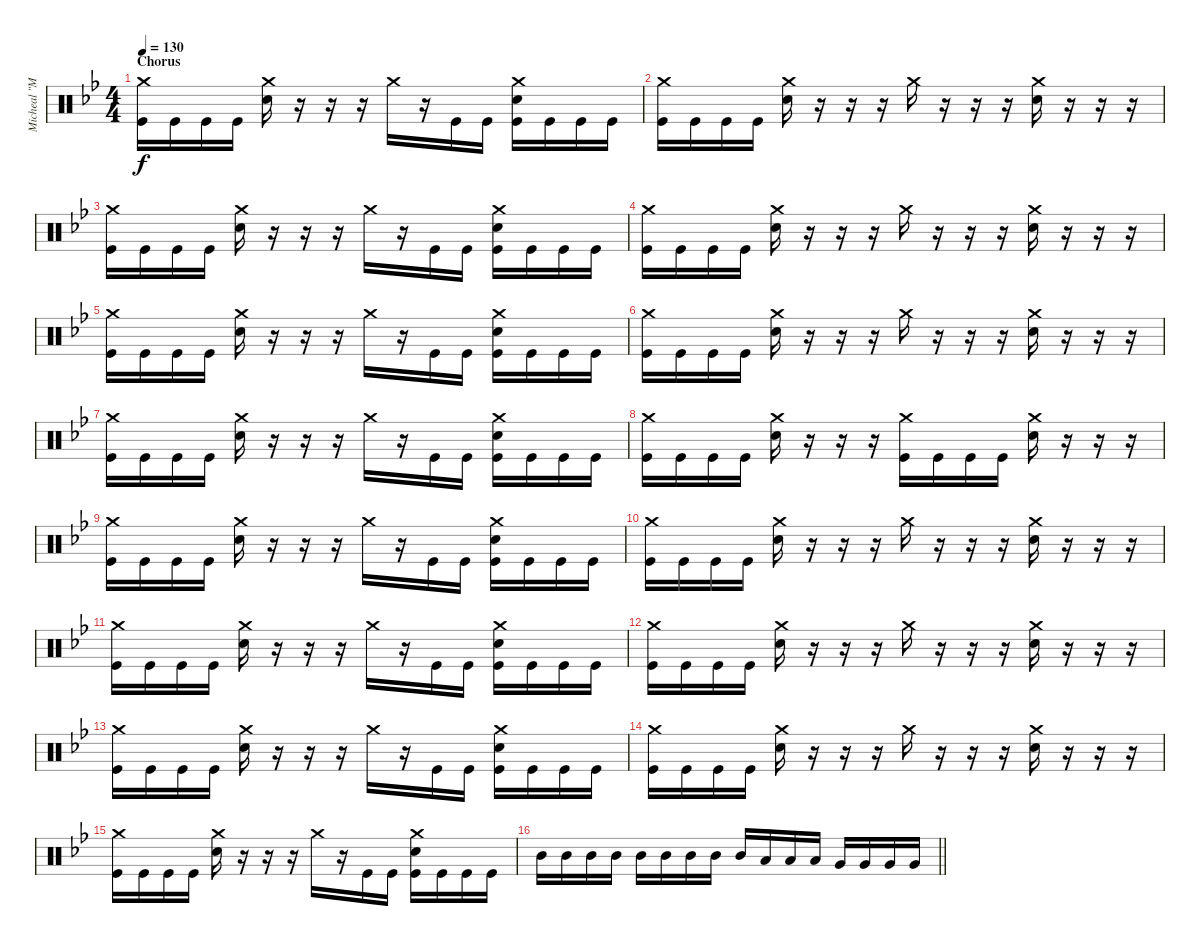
\track ("Micheal \"Moose\" Thomas" "Micheal \"M") {instrument percussion}
\staff {score}
\articulation defaults
\ts (4 4)
\section ("" "Chorus")
\tempo 130
\clef neutral
\ks bb
("Crash medium (hit)" "Kick (hit)").16{dy f} "Kick (hit)".16 "Kick (hit)".16 "Kick (hit)".16 ("Crash medium (hit)" "Snare (hit) 2").16 r.16 r.16 r.16 "Crash medium (hit)".16 r.16 "Kick (hit)".16 "Kick (hit)".16 ("Crash medium (hit)" "Snare (hit) 2" "Kick (hit)").16 "Kick (hit)".16 "Kick (hit)".16 "Kick (hit)".16 |
("Crash medium (hit)" "Kick (hit)").16 "Kick (hit)".16 "Kick (hit)".16 "Kick (hit)".16 ("Crash medium (hit)" "Snare (hit) 2").16 r.16 r.16 r.16 "Crash medium (hit)".16 r.16 r.16 r.16 ("Crash medium (hit)" "Snare (hit) 2").16 r.16 r.16 r.16 |
("Crash medium (hit)" "Kick (hit)").16 "Kick (hit)".16 "Kick (hit)".16 "Kick (hit)".16 ("Crash medium (hit)" "Snare (hit) 2").16 r.16 r.16 r.16 "Crash medium (hit)".16 r.16 "Kick (hit)".16 "Kick (hit)".16 ("Crash medium (hit)" "Snare (hit) 2" "Kick (hit)").16 "Kick (hit)".16 "Kick (hit)".16 "Kick (hit)".16 |
("Crash medium (hit)" "Kick (hit)").16 "Kick (hit)".16 "Kick (hit)".16 "Kick (hit)".16 ("Crash medium (hit)" "Snare (hit) 2").16 r.16 r.16 r.16 "Crash medium (hit)".16 r.16 r.16 r.16 ("Crash medium (hit)" "Snare (hit) 2").16 r.16 r.16 r.16 |
("Crash medium (hit)" "Kick (hit)").16 "Kick (hit)".16 "Kick (hit)".16 "Kick (hit)".16 ("Crash medium (hit)" "Snare (hit) 2").16 r.16 r.16 r.16 "Crash medium (hit)".16 r.16 "Kick (hit)".16 "Kick (hit)".16 ("Crash medium (hit)" "Snare (hit) 2" "Kick (hit)").16 "Kick (hit)".16 "Kick (hit)".16 "Kick (hit)".16 |
("Crash medium (hit)" "Kick (hit)").16 "Kick (hit)".16 "Kick (hit)".16 "Kick (hit)".16 ("Crash medium (hit)" "Snare (hit) 2").16 r.16 r.16 r.16 "Crash medium (hit)".16 r.16 r.16 r.16 ("Crash medium (hit)" "Snare (hit) 2").16 r.16 r.16 r.16 |
("Crash medium (hit)" "Kick (hit)").16 "Kick (hit)".16 "Kick (hit)".16 "Kick (hit)".16 ("Crash medium (hit)" "Snare (hit) 2").16 r.16 r.16 r.16 "Crash medium (hit)".16 r.16 "Kick (hit)".16 "Kick (hit)".16 ("Crash medium (hit)" "Snare (hit) 2" "Kick (hit)").16 "Kick (hit)".16 "Kick (hit)".16 "Kick (hit)".16 |
("Crash medium (hit)" "Kick (hit)").16 "Kick (hit)".16 "Kick (hit)".16 "Kick (hit)".16 ("Crash medium (hit)" "Snare (hit) 2").16 r.16 r.16 r.16 ("Crash medium (hit)" "Kick (hit)").16 "Kick (hit)".16 "Kick (hit)".16 "Kick (hit)".16 ("Crash medium (hit)" "Snare (hit) 2").16 r.16 r.16 r.16 |
("Crash medium (hit)" "Kick (hit)").16 "Kick (hit)".16 "Kick (hit)".16 "Kick (hit)".16 ("Crash medium (hit)" "Snare (hit) 2").16 r.16 r.16 r.16 "Crash medium (hit)".16 r.16 "Kick (hit)".16 "Kick (hit)".16 ("Crash medium (hit)" "Snare (hit) 2" "Kick (hit)").16 "Kick (hit)".16 "Kick (hit)".16 "Kick (hit)".16 |
("Crash medium (hit)" "Kick (hit)").16 "Kick (hit)".16 "Kick (hit)".16 "Kick (hit)".16 ("Crash medium (hit)" "Snare (hit) 2").16 r.16 r.16 r.16 "Crash medium (hit)".16 r.16 r.16 r.16 ("Crash medium (hit)" "Snare (hit) 2").16 r.16 r.16 r.16 |
("Crash medium (hit)" "Kick (hit)").16 "Kick (hit)".16 "Kick (hit)".16 "Kick (hit)".16 ("Crash medium (hit)" "Snare (hit) 2").16 r.16 r.16 r.16 "Crash medium (hit)".16 r.16 "Kick (hit)".16 "Kick (hit)".16 ("Crash medium (hit)" "Snare (hit) 2" "Kick (hit)").16 "Kick (hit)".16 "Kick (hit)".16 "Kick (hit)".16 |
("Crash medium (hit)" "Kick (hit)").16 "Kick (hit)".16 "Kick (hit)".16 "Kick (hit)".16 ("Crash medium (hit)" "Snare (hit) 2").16 r.16 r.16 r.16 "Crash medium (hit)".16 r.16 r.16 r.16 ("Crash medium (hit)" "Snare (hit) 2").16 r.16 r.16 r.16 |
("Crash medium (hit)" "Kick (hit)").16 "Kick (hit)".16 "Kick (hit)".16 "Kick (hit)".16 ("Crash medium (hit)" "Snare (hit) 2").16 r.16 r.16 r.16 "Crash medium (hit)".16 r.16 "Kick (hit)".16 "Kick (hit)".16 ("Crash medium (hit)" "Snare (hit) 2" "Kick (hit)").16 "Kick (hit)".16 "Kick (hit)".16 "Kick (hit)".16 |
("Crash medium (hit)" "Kick (hit)").16 "Kick (hit)".16 "Kick (hit)".16 "Kick (hit)".16 ("Crash medium (hit)" "Snare (hit) 2").16 r.16 r.16 r.16 "Crash medium (hit)".16 r.16 r.16 r.16 ("Crash medium (hit)" "Snare (hit) 2").16 r.16 r.16 r.16 |
("Crash medium (hit)" "Kick (hit)").16 "Kick (hit)".16 "Kick (hit)".16 "Kick (hit)".16 ("Crash medium (hit)" "Snare (hit) 2").16 r.16 r.16 r.16 "Crash medium (hit)".16 r.16 "Kick (hit)".16 "Kick (hit)".16 ("Crash medium (hit)" "Snare (hit) 2" "Kick (hit)").16 "Kick (hit)".16 "Kick (hit)".16 "Kick (hit)".16 |
\barLineRight lightlight "Mid Tom (hit)".16 "Mid Tom (hit)".16 "Mid Tom (hit)".16 "Mid Tom (hit)".16 "Mid Tom (hit)".16 "Mid Tom (hit)".16 "Mid Tom (hit)".16 "Mid Tom (hit)".16 "Mid Tom (hit)".16 "Low Tom (hit)".16 "Low Tom (hit)".16 "Low Tom (hit)".16 "Very Low Tom (hit)".16 "Very Low Tom (hit)".16 "Very Low Tom (hit)".16 "Very Low Tom (hit)".16
